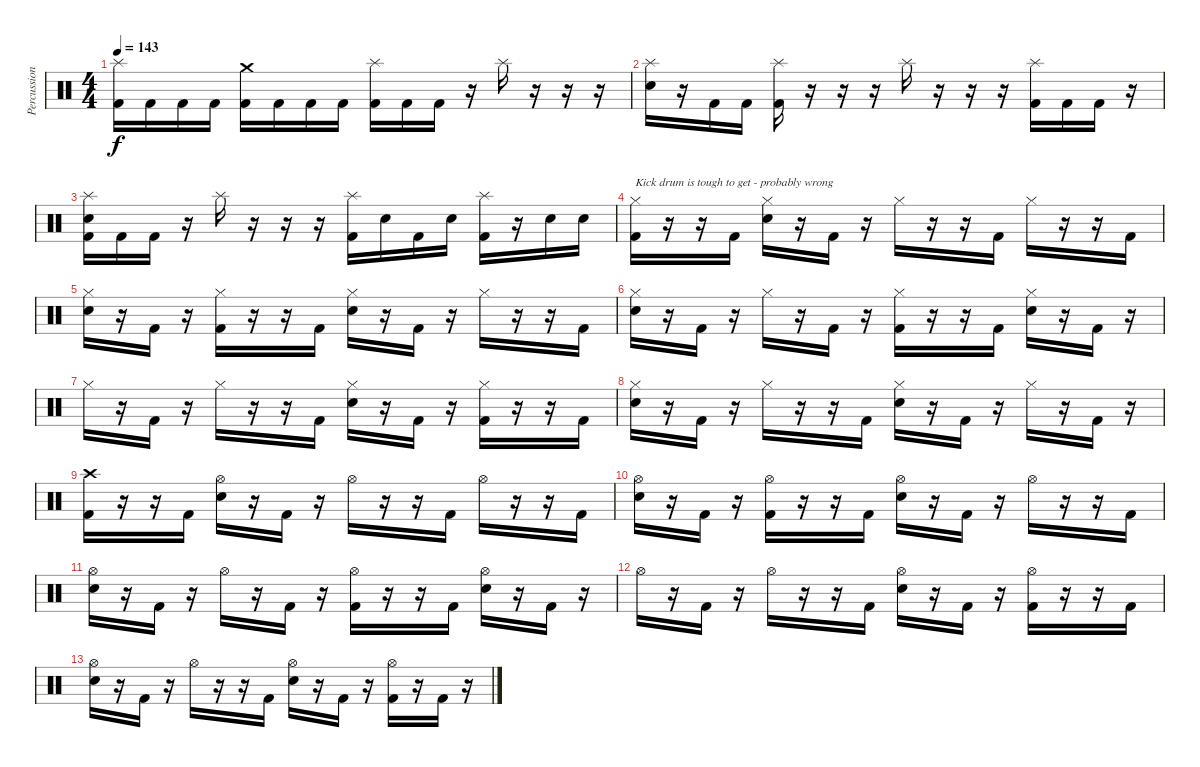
\track ("Percussion" "Percussion") {instrument percussion}
\staff {score}
\articulation defaults
\ts (4 4)
\tempo 143
\clef neutral
\ks c
("Splash (hit)" "Kick (hit) 2").16{dy f} "Kick (hit) 2".16 "Kick (hit) 2".16 "Kick (hit) 2".16 ("Crash medium (hit)" "Kick (hit) 2").16 "Kick (hit) 2".16 "Kick (hit) 2".16 "Kick (hit) 2".16 ("Splash (hit)" "Kick (hit) 2").16 "Kick (hit) 2".16 "Kick (hit) 2".16 r.16 "Splash (hit)".16 r.16 r.16 r.16 |
("Splash (hit)" "Electric Snare (hit)").16 r.16 "Kick (hit) 2".16 "Kick (hit) 2".16 ("Splash (hit)" "Kick (hit) 2").16 r.16 r.16 r.16 "Splash (hit)".16 r.16 r.16 r.16 ("Splash (hit)" "Kick (hit) 2").16 "Kick (hit) 2".16 "Kick (hit) 2".16 r.16 |
("Splash (hit)" "Electric Snare (hit)" "Kick (hit) 2").16 "Kick (hit) 2".16 "Kick (hit) 2".16 r.16 "Splash (hit)".16 r.16 r.16 r.16 ("Splash (hit)" "Kick (hit) 2").16 "Electric Snare (hit)".16 "Kick (hit) 2".16 "Electric Snare (hit)".16 ("Splash (hit)" "Kick (hit) 2").16 r.16 "Electric Snare (hit)".16 "Electric Snare (hit)".16 |
("Hi-Hat (closed)" "Kick (hit) 2").16{txt "Kick drum is tough to get - probably wrong"} r.16 r.16 "Kick (hit) 2".16 ("Hi-Hat (closed)" "Electric Snare (hit)").16 r.16 "Kick (hit) 2".16 r.16 "Hi-Hat (closed)".16 r.16 r.16 "Kick (hit) 2".16 "Hi-Hat (closed)".16 r.16 r.16 "Kick (hit) 2".16 |
("Hi-Hat (closed)" "Electric Snare (hit)").16 r.16 "Kick (hit) 2".16 r.16 ("Hi-Hat (closed)" "Kick (hit) 2").16 r.16 r.16 "Kick (hit) 2".16 ("Hi-Hat (closed)" "Electric Snare (hit)").16 r.16 "Kick (hit) 2".16 r.16 "Hi-Hat (closed)".16 r.16 r.16 "Kick (hit) 2".16 |
("Hi-Hat (closed)" "Electric Snare (hit)").16 r.16 "Kick (hit) 2".16 r.16 "Hi-Hat (closed)".16 r.16 "Kick (hit) 2".16 r.16 ("Hi-Hat (closed)" "Kick (hit) 2").16 r.16 r.16 "Kick (hit) 2".16 ("Hi-Hat (closed)" "Electric Snare (hit)").16 r.16 "Kick (hit) 2".16 r.16 |
"Hi-Hat (closed)".16 r.16 "Kick (hit) 2".16 r.16 "Hi-Hat (closed)".16 r.16 r.16 "Kick (hit) 2".16 ("Hi-Hat (closed)" "Electric Snare (hit)").16 r.16 "Kick (hit) 2".16 r.16 ("Hi-Hat (closed)" "Kick (hit) 2").16 r.16 r.16 "Kick (hit) 2".16 |
("Hi-Hat (closed)" "Electric Snare (hit)").16 r.16 "Kick (hit) 2".16 r.16 "Hi-Hat (closed)".16 r.16 r.16 "Kick (hit) 2".16 ("Hi-Hat (closed)" "Electric Snare (hit)").16 r.16 "Kick (hit) 2".16 r.16 "Hi-Hat (closed)".16 r.16 "Kick (hit) 2".16 r.16 |
("Crash high (hit)" "Kick (hit) 2").16 r.16 r.16 "Kick (hit) 2".16 ("Hi-Hat (open)" "Electric Snare (hit)").16 r.16 "Kick (hit) 2".16 r.16 "Hi-Hat (open)".16 r.16 r.16 "Kick (hit) 2".16 "Hi-Hat (open)".16 r.16 r.16 "Kick (hit) 2".16 |
("Hi-Hat (open)" "Electric Snare (hit)").16 r.16 "Kick (hit) 2".16 r.16 ("Hi-Hat (open)" "Kick (hit) 2").16 r.16 r.16 "Kick (hit) 2".16 ("Hi-Hat (open)" "Electric Snare (hit)").16 r.16 "Kick (hit) 2".16 r.16 "Hi-Hat (open)".16 r.16 r.16 "Kick (hit) 2".16 |
("Hi-Hat (open)" "Electric Snare (hit)").16 r.16 "Kick (hit) 2".16 r.16 "Hi-Hat (open)".16 r.16 "Kick (hit) 2".16 r.16 ("Hi-Hat (open)" "Kick (hit) 2").16 r.16 r.16 "Kick (hit) 2".16 ("Hi-Hat (open)" "Electric Snare (hit)").16 r.16 "Kick (hit) 2".16 r.16 |
"Hi-Hat (open)".16 r.16 "Kick (hit) 2".16 r.16 "Hi-Hat (open)".16 r.16 r.16 "Kick (hit) 2".16 ("Hi-Hat (open)" "Electric Snare (hit)").16 r.16 "Kick (hit) 2".16 r.16 ("Hi-Hat (open)" "Kick (hit) 2").16 r.16 r.16 "Kick (hit) 2".16 |
("Hi-Hat (open)" "Electric Snare (hit)").16 r.16 "Kick (hit) 2".16 r.16 "Hi-Hat (open)".16 r.16 r.16 "Kick (hit) 2".16 ("Hi-Hat (open)" "Electric Snare (hit)").16 r.16 "Kick (hit) 2".16 r.16 ("Hi-Hat (open)" "Kick (hit) 2").16 r.16 "Kick (hit) 2".16 r.16
